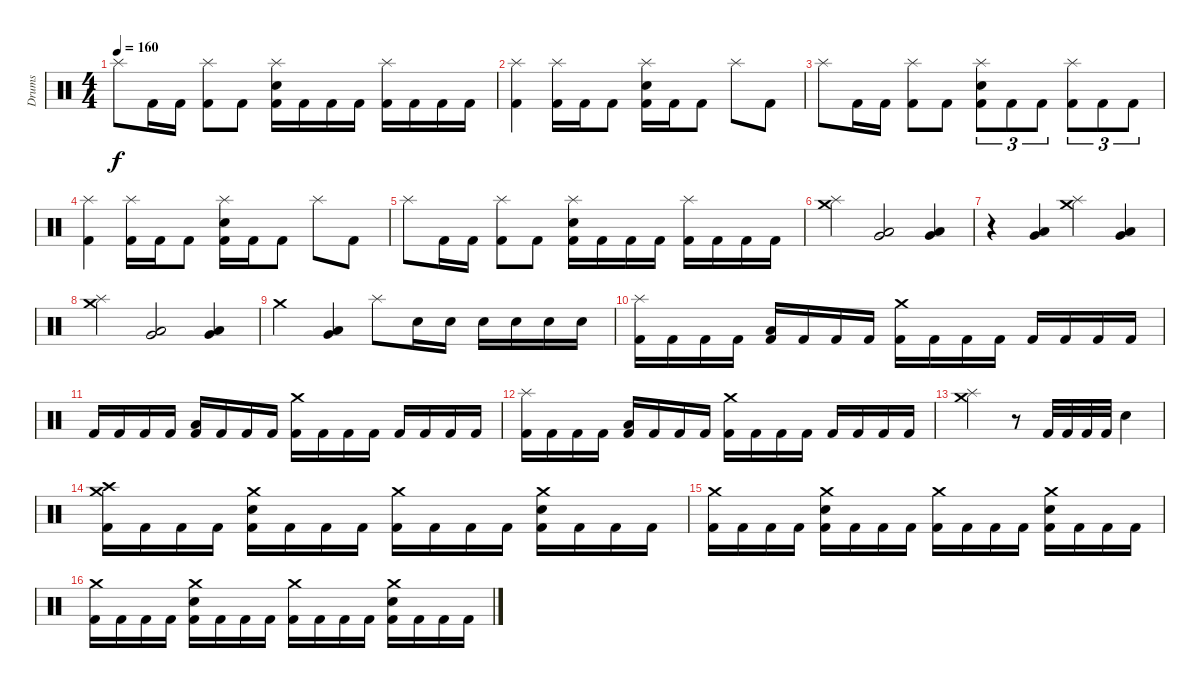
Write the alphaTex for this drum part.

\track ("Drums" "Drums") {instrument percussion}
\staff {score}
\articulation defaults
\ts (4 4)
\tempo 160
\clef neutral
\ks c "Splash (hit)".8{dy f} "Kick (hit) 2".16 "Kick (hit) 2".16
("Splash (hit)" "Kick (hit) 2").8 "Kick (hit) 2".8 ("Splash (hit)" "Electric Snare (hit)" "Kick (hit) 2").16 "Kick (hit) 2".16 "Kick (hit) 2".16 "Kick (hit) 2".16 ("Splash (hit)" "Kick (hit) 2").16 "Kick (hit) 2".16 "Kick (hit) 2".16 "Kick (hit) 2".16 |
("Splash (hit)" "Kick (hit) 2").4 ("Splash (hit)" "Kick (hit) 2").16 "Kick (hit) 2".16 "Kick (hit) 2".8 ("Splash (hit)" "Electric Snare (hit)" "Kick (hit) 2").16 "Kick (hit) 2".16 "Kick (hit) 2".8 "Splash (hit)".8 "Kick (hit) 2".8 |
"Splash (hit)".8 "Kick (hit) 2".16 "Kick (hit) 2".16 ("Splash (hit)" "Kick (hit) 2").8 "Kick (hit) 2".8 ("Splash (hit)" "Electric Snare (hit)" "Kick (hit) 2").8{tu (3 2)} "Kick (hit) 2".8{tu (3 2)} "Kick (hit) 2".8{tu (3 2)} ("Splash (hit)" "Kick (hit) 2").8{tu (3 2)} "Kick (hit) 2".8{tu (3 2)} "Kick (hit) 2".8{tu (3 2)} |
("Splash (hit)" "Kick (hit) 2").4 ("Splash (hit)" "Kick (hit) 2").16 "Kick (hit) 2".16 "Kick (hit) 2".8 ("Splash (hit)" "Electric Snare (hit)" "Kick (hit) 2").16 "Kick (hit) 2".16 "Kick (hit) 2".8 "Splash (hit)".8 "Kick (hit) 2".8 |
"Splash (hit)".8 "Kick (hit) 2".16 "Kick (hit) 2".16 ("Splash (hit)" "Kick (hit) 2").8 "Kick (hit) 2".8 ("Splash (hit)" "Electric Snare (hit)" "Kick (hit) 2").16 "Kick (hit) 2".16 "Kick (hit) 2".16 "Kick (hit) 2".16 ("Splash (hit)" "Kick (hit) 2").16 "Kick (hit) 2".16 "Kick (hit) 2".16 "Kick (hit) 2".16 |
("Crash medium (hit)" "Splash (hit)").4 ("Very Low Tom (hit)" "Low Floor Tom (hit)").2 ("Very Low Tom (hit)" "Low Floor Tom (hit)").4 |
r.4 ("Very Low Tom (hit)" "Low Floor Tom (hit)").4 ("Crash medium (hit)" "Splash (hit)").4 ("Very Low Tom (hit)" "Low Floor Tom (hit)").4 |
("Crash medium (hit)" "Splash (hit)").4 ("Very Low Tom (hit)" "Low Floor Tom (hit)").2 ("Very Low Tom (hit)" "Low Floor Tom (hit)").4 |
"Crash medium (hit)".4 ("Very Low Tom (hit)" "Low Floor Tom (hit)").4 "Splash (hit)".8 "Electric Snare (hit)".16 "Electric Snare (hit)".16 "Electric Snare (hit)".16 "Electric Snare (hit)".16 "Electric Snare (hit)".16 "Electric Snare (hit)".16 |
("Splash (hit)" "Kick (hit) 2").16 "Kick (hit) 2".16 "Kick (hit) 2".16 "Kick (hit) 2".16 ("Low Floor Tom (hit)" "Kick (hit) 2").16 "Kick (hit) 2".16 "Kick (hit) 2".16 "Kick (hit) 2".16 ("Crash medium (hit)" "Kick (hit) 2").16 "Kick (hit) 2".16 "Kick (hit) 2".16 "Kick (hit) 2".16 "Kick (hit) 2".16 "Kick (hit) 2".16 "Kick (hit) 2".16 "Kick (hit) 2".16 |
"Kick (hit) 2".16 "Kick (hit) 2".16 "Kick (hit) 2".16 "Kick (hit) 2".16 ("Low Floor Tom (hit)" "Kick (hit) 2").16 "Kick (hit) 2".16 "Kick (hit) 2".16 "Kick (hit) 2".16 ("Crash medium (hit)" "Kick (hit) 2").16 "Kick (hit) 2".16 "Kick (hit) 2".16 "Kick (hit) 2".16 "Kick (hit) 2".16 "Kick (hit) 2".16 "Kick (hit) 2".16 "Kick (hit) 2".16 |
("Splash (hit)" "Kick (hit) 2").16 "Kick (hit) 2".16 "Kick (hit) 2".16 "Kick (hit) 2".16 ("Low Floor Tom (hit)" "Kick (hit) 2").16 "Kick (hit) 2".16 "Kick (hit) 2".16 "Kick (hit) 2".16 ("Crash medium (hit)" "Kick (hit) 2").16 "Kick (hit) 2".16 "Kick (hit) 2".16 "Kick (hit) 2".16 "Kick (hit) 2".16 "Kick (hit) 2".16 "Kick (hit) 2".16 "Kick (hit) 2".16 |
("Crash medium (hit)" "Splash (hit)").2 r.8 "Kick (hit) 2".32 "Kick (hit) 2".32 "Kick (hit) 2".32 "Kick (hit) 2".32 "Electric Snare (hit)".4 |
("Crash medium (hit)" "Crash high (hit)" "Kick (hit) 2").16 "Kick (hit) 2".16 "Kick (hit) 2".16 "Kick (hit) 2".16 ("Crash medium (hit)" "Electric Snare (hit)" "Kick (hit) 2").16 "Kick (hit) 2".16 "Kick (hit) 2".16 "Kick (hit) 2".16 ("Crash medium (hit)" "Kick (hit) 2").16 "Kick (hit) 2".16 "Kick (hit) 2".16 "Kick (hit) 2".16 ("Crash medium (hit)" "Electric Snare (hit)" "Kick (hit) 2").16 "Kick (hit) 2".16 "Kick (hit) 2".16 "Kick (hit) 2".16 |
("Crash medium (hit)" "Kick (hit) 2").16 "Kick (hit) 2".16 "Kick (hit) 2".16 "Kick (hit) 2".16 ("Crash medium (hit)" "Electric Snare (hit)" "Kick (hit) 2").16 "Kick (hit) 2".16 "Kick (hit) 2".16 "Kick (hit) 2".16 ("Crash medium (hit)" "Kick (hit) 2").16 "Kick (hit) 2".16 "Kick (hit) 2".16 "Kick (hit) 2".16 ("Crash medium (hit)" "Electric Snare (hit)" "Kick (hit) 2").16 "Kick (hit) 2".16 "Kick (hit) 2".16 "Kick (hit) 2".16 |
("Crash medium (hit)" "Kick (hit) 2").16 "Kick (hit) 2".16 "Kick (hit) 2".16 "Kick (hit) 2".16 ("Crash medium (hit)" "Electric Snare (hit)" "Kick (hit) 2").16 "Kick (hit) 2".16 "Kick (hit) 2".16 "Kick (hit) 2".16 ("Crash medium (hit)" "Kick (hit) 2").16 "Kick (hit) 2".16 "Kick (hit) 2".16 "Kick (hit) 2".16 ("Crash medium (hit)" "Electric Snare (hit)" "Kick (hit) 2").16 "Kick (hit) 2".16 "Kick (hit) 2".16 "Kick (hit) 2".16
